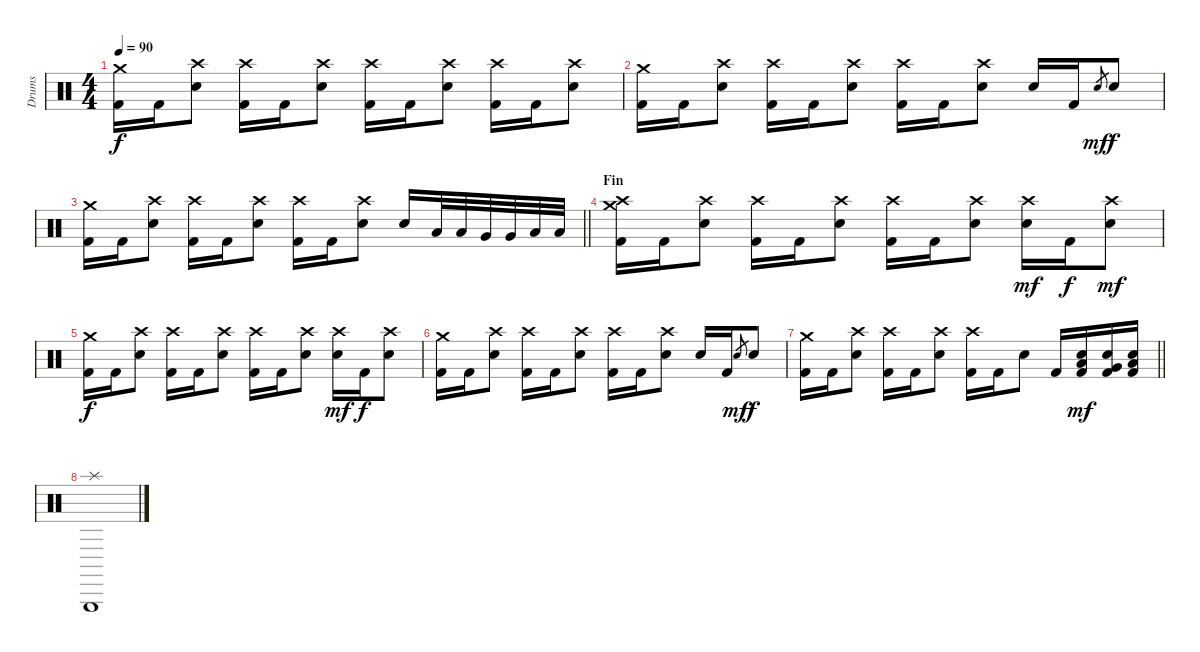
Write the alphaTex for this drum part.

\track ("Drums" "Drums") {instrument percussion}
\staff {score}
\articulation defaults
\ts (4 4)
\tempo 90
\clef neutral
\ks c
("Crash medium (hit)" "Kick (hit) 2").16{dy f} "Kick (hit) 2".16 ("Crash high (hit)" "Electric Snare (hit)").8 ("Crash high (hit)" "Kick (hit) 2").16 "Kick (hit) 2".16 ("Crash high (hit)" "Electric Snare (hit)").8 ("Crash high (hit)" "Kick (hit) 2").16 "Kick (hit) 2".16 ("Crash high (hit)" "Electric Snare (hit)").8 ("Crash high (hit)" "Kick (hit) 2").16 "Kick (hit) 2".16 ("Crash high (hit)" "Electric Snare (hit)").8 |
("Crash medium (hit)" "Kick (hit) 2").16 "Kick (hit) 2".16 ("Crash high (hit)" "Electric Snare (hit)").8 ("Crash high (hit)" "Kick (hit) 2").16 "Kick (hit) 2".16 ("Crash high (hit)" "Electric Snare (hit)").8 ("Crash high (hit)" "Kick (hit) 2").16 "Kick (hit) 2".16 ("Crash high (hit)" "Electric Snare (hit)").8 "Electric Snare (hit)".16 "Kick (hit) 2".16 "Electric Snare (hit)".8{gr dy mf} "Electric Snare (hit)".8{dy f} |
\barLineRight lightlight
("Crash medium (hit)" "Kick (hit) 2").16 "Kick (hit) 2".16 ("Crash high (hit)" "Electric Snare (hit)").8 ("Crash high (hit)" "Kick (hit) 2").16 "Kick (hit) 2".16 ("Crash high (hit)" "Electric Snare (hit)").8 ("Crash high (hit)" "Kick (hit) 2").16 "Kick (hit) 2".16 ("Crash high (hit)" "Electric Snare (hit)").8 "Electric Snare (hit)".16 "Low Tom (hit)".32 "Low Tom (hit)".32 "Very Low Tom (hit)".32 "Very Low Tom (hit)".32 "Low Floor Tom (hit)".32 "Low Floor Tom (hit)".32 |
\section ("" "Fin")
("Crash high (hit)" "Crash medium (hit)" "Kick (hit) 2").16 "Kick (hit) 2".16 ("Crash high (hit)" "Electric Snare (hit)").8 ("Crash high (hit)" "Kick (hit) 2").16 "Kick (hit) 2".16 ("Crash high (hit)" "Electric Snare (hit)").8 ("Crash high (hit)" "Kick (hit) 2").16 "Kick (hit) 2".16 ("Crash high (hit)" "Electric Snare (hit)").8 ("Crash high (hit)" "Electric Snare (hit)").16{dy mf} "Kick (hit) 2".16{dy f} ("Crash high (hit)" "Electric Snare (hit)").8{dy mf} |
("Crash medium (hit)" "Kick (hit) 2").16{dy f} "Kick (hit) 2".16 ("Crash high (hit)" "Electric Snare (hit)").8 ("Crash high (hit)" "Kick (hit) 2").16 "Kick (hit) 2".16 ("Crash high (hit)" "Electric Snare (hit)").8 ("Crash high (hit)" "Kick (hit) 2").16 "Kick (hit) 2".16 ("Crash high (hit)" "Electric Snare (hit)").8 ("Crash high (hit)" "Electric Snare (hit)").16{dy mf} "Kick (hit) 2".16{dy f} ("Crash high (hit)" "Electric Snare (hit)").8 |
("Crash medium (hit)" "Kick (hit) 2").16 "Kick (hit) 2".16 ("Crash high (hit)" "Electric Snare (hit)").8 ("Crash high (hit)" "Kick (hit) 2").16 "Kick (hit) 2".16 ("Crash high (hit)" "Electric Snare (hit)").8 ("Crash high (hit)" "Kick (hit) 2").16 "Kick (hit) 2".16 ("Crash high (hit)" "Electric Snare (hit)").8 "Electric Snare (hit)".16 "Kick (hit) 2".16 "Electric Snare (hit)".8{gr dy mf} "Electric Snare (hit)".8{dy f} |
\barLineRight lightlight
("Crash medium (hit)" "Kick (hit) 2").16 "Kick (hit) 2".16 ("Crash high (hit)" "Electric Snare (hit)").8 ("Crash high (hit)" "Kick (hit) 2").16 "Kick (hit) 2".16 ("Crash high (hit)" "Electric Snare (hit)").8 ("Crash high (hit)" "Kick (hit) 2").16 "Kick (hit) 2".16 "Electric Snare (hit)".8 "Kick (hit) 2".16 ("Kick (hit) 2" "Low Tom (hit)" "Electric Snare (hit)").16{dy mf} ("Kick (hit) 2" "Very Low Tom (hit)" "Electric Snare (hit)").16 ("Kick (hit) 2" "Low Floor Tom (hit)" "Electric Snare (hit)").16 |
("Splash (hit)" "Triangle (hit)").1
